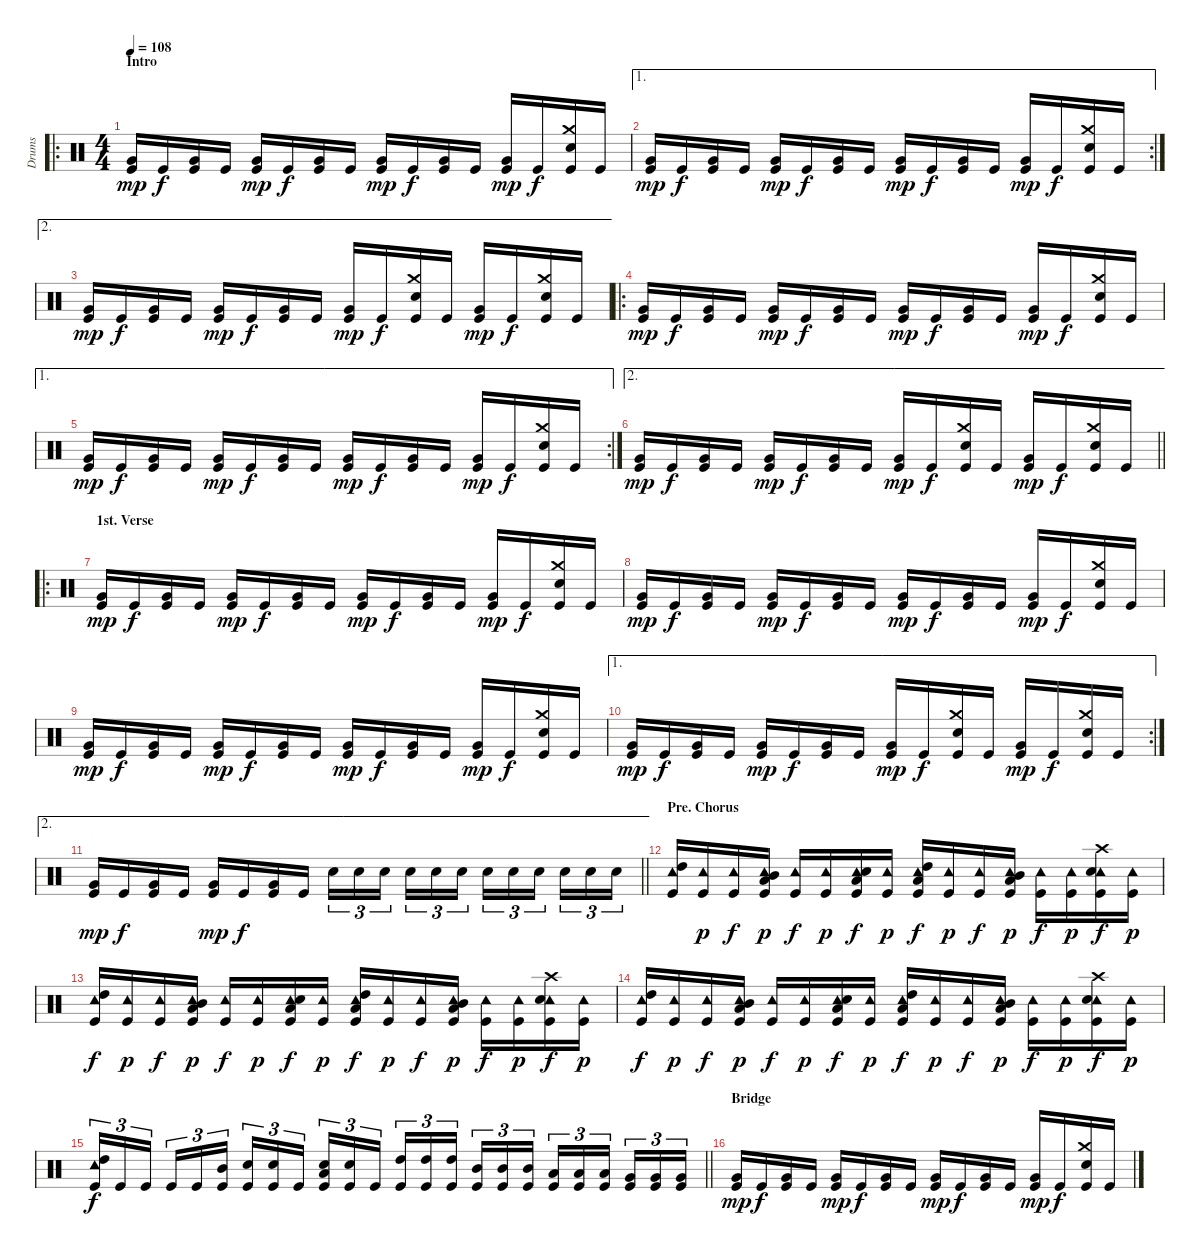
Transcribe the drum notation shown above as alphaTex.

\track ("Drums" "Drums") {instrument percussion}
\staff {score}
\articulation defaults
\ro
\ts (4 4)
\section ("" "Intro")
\tempo 108
\clef neutral
\ks c
("Very Low Tom (hit)" "Kick (hit)").16{dy mp} "Kick (hit)".16{dy f} ("Very Low Tom (hit)" "Kick (hit)").16 "Kick (hit)".16 ("Very Low Tom (hit)" "Kick (hit)").16{dy mp} "Kick (hit)".16{dy f} ("Very Low Tom (hit)" "Kick (hit)").16 "Kick (hit)".16 ("Very Low Tom (hit)" "Kick (hit)").16{dy mp} "Kick (hit)".16{dy f} ("Very Low Tom (hit)" "Kick (hit)").16 "Kick (hit)".16 ("Very Low Tom (hit)" "Kick (hit)").16{dy mp} "Kick (hit)".16{dy f} ("Crash medium (hit)" "Electric Snare (hit)" "Kick (hit)").16 "Kick (hit)".16 |
\ae 1
\rc 2
("Very Low Tom (hit)" "Kick (hit)").16{dy mp} "Kick (hit)".16{dy f} ("Very Low Tom (hit)" "Kick (hit)").16 "Kick (hit)".16 ("Very Low Tom (hit)" "Kick (hit)").16{dy mp} "Kick (hit)".16{dy f} ("Very Low Tom (hit)" "Kick (hit)").16 "Kick (hit)".16 ("Very Low Tom (hit)" "Kick (hit)").16{dy mp} "Kick (hit)".16{dy f} ("Very Low Tom (hit)" "Kick (hit)").16 "Kick (hit)".16 ("Very Low Tom (hit)" "Kick (hit)").16{dy mp} "Kick (hit)".16{dy f} ("Crash medium (hit)" "Electric Snare (hit)" "Kick (hit)").16 "Kick (hit)".16 |
\ae 2
("Very Low Tom (hit)" "Kick (hit)").16{dy mp} "Kick (hit)".16{dy f} ("Very Low Tom (hit)" "Kick (hit)").16 "Kick (hit)".16 ("Very Low Tom (hit)" "Kick (hit)").16{dy mp} "Kick (hit)".16{dy f} ("Very Low Tom (hit)" "Kick (hit)").16 "Kick (hit)".16 ("Very Low Tom (hit)" "Kick (hit)").16{dy mp} "Kick (hit)".16{dy f} ("Crash medium (hit)" "Electric Snare (hit)" "Kick (hit)").16 "Kick (hit)".16 ("Very Low Tom (hit)" "Kick (hit)").16{dy mp} "Kick (hit)".16{dy f} ("Crash medium (hit)" "Electric Snare (hit)" "Kick (hit)").16 "Kick (hit)".16 |
\ro
("Very Low Tom (hit)" "Kick (hit)").16{dy mp} "Kick (hit)".16{dy f} ("Very Low Tom (hit)" "Kick (hit)").16 "Kick (hit)".16 ("Very Low Tom (hit)" "Kick (hit)").16{dy mp} "Kick (hit)".16{dy f} ("Very Low Tom (hit)" "Kick (hit)").16 "Kick (hit)".16 ("Very Low Tom (hit)" "Kick (hit)").16{dy mp} "Kick (hit)".16{dy f} ("Very Low Tom (hit)" "Kick (hit)").16 "Kick (hit)".16 ("Very Low Tom (hit)" "Kick (hit)").16{dy mp} "Kick (hit)".16{dy f} ("Crash medium (hit)" "Electric Snare (hit)" "Kick (hit)").16 "Kick (hit)".16 |
\ae 1
\rc 2
("Very Low Tom (hit)" "Kick (hit)").16{dy mp} "Kick (hit)".16{dy f} ("Very Low Tom (hit)" "Kick (hit)").16 "Kick (hit)".16 ("Very Low Tom (hit)" "Kick (hit)").16{dy mp} "Kick (hit)".16{dy f} ("Very Low Tom (hit)" "Kick (hit)").16 "Kick (hit)".16 ("Very Low Tom (hit)" "Kick (hit)").16{dy mp} "Kick (hit)".16{dy f} ("Very Low Tom (hit)" "Kick (hit)").16 "Kick (hit)".16 ("Very Low Tom (hit)" "Kick (hit)").16{dy mp} "Kick (hit)".16{dy f} ("Crash medium (hit)" "Electric Snare (hit)" "Kick (hit)").16 "Kick (hit)".16 |
\ae 2
\barLineRight lightlight
("Very Low Tom (hit)" "Kick (hit)").16{dy mp} "Kick (hit)".16{dy f} ("Very Low Tom (hit)" "Kick (hit)").16 "Kick (hit)".16 ("Very Low Tom (hit)" "Kick (hit)").16{dy mp} "Kick (hit)".16{dy f} ("Very Low Tom (hit)" "Kick (hit)").16 "Kick (hit)".16 ("Very Low Tom (hit)" "Kick (hit)").16{dy mp} "Kick (hit)".16{dy f} ("Crash medium (hit)" "Electric Snare (hit)" "Kick (hit)").16 "Kick (hit)".16 ("Very Low Tom (hit)" "Kick (hit)").16{dy mp} "Kick (hit)".16{dy f} ("Crash medium (hit)" "Electric Snare (hit)" "Kick (hit)").16 "Kick (hit)".16 |
\ro
\section ("" "1st. Verse")
("Very Low Tom (hit)" "Kick (hit)").16{dy mp} "Kick (hit)".16{dy f} ("Very Low Tom (hit)" "Kick (hit)").16 "Kick (hit)".16 ("Very Low Tom (hit)" "Kick (hit)").16{dy mp} "Kick (hit)".16{dy f} ("Very Low Tom (hit)" "Kick (hit)").16 "Kick (hit)".16 ("Very Low Tom (hit)" "Kick (hit)").16{dy mp} "Kick (hit)".16{dy f} ("Very Low Tom (hit)" "Kick (hit)").16 "Kick (hit)".16 ("Very Low Tom (hit)" "Kick (hit)").16{dy mp} "Kick (hit)".16{dy f} ("Crash medium (hit)" "Electric Snare (hit)" "Kick (hit)").16 "Kick (hit)".16 |
("Very Low Tom (hit)" "Kick (hit)").16{dy mp} "Kick (hit)".16{dy f} ("Very Low Tom (hit)" "Kick (hit)").16 "Kick (hit)".16 ("Very Low Tom (hit)" "Kick (hit)").16{dy mp} "Kick (hit)".16{dy f} ("Very Low Tom (hit)" "Kick (hit)").16 "Kick (hit)".16 ("Very Low Tom (hit)" "Kick (hit)").16{dy mp} "Kick (hit)".16{dy f} ("Very Low Tom (hit)" "Kick (hit)").16 "Kick (hit)".16 ("Very Low Tom (hit)" "Kick (hit)").16{dy mp} "Kick (hit)".16{dy f} ("Crash medium (hit)" "Electric Snare (hit)" "Kick (hit)").16 "Kick (hit)".16 |
("Very Low Tom (hit)" "Kick (hit)").16{dy mp} "Kick (hit)".16{dy f} ("Very Low Tom (hit)" "Kick (hit)").16 "Kick (hit)".16 ("Very Low Tom (hit)" "Kick (hit)").16{dy mp} "Kick (hit)".16{dy f} ("Very Low Tom (hit)" "Kick (hit)").16 "Kick (hit)".16 ("Very Low Tom (hit)" "Kick (hit)").16{dy mp} "Kick (hit)".16{dy f} ("Very Low Tom (hit)" "Kick (hit)").16 "Kick (hit)".16 ("Very Low Tom (hit)" "Kick (hit)").16{dy mp} "Kick (hit)".16{dy f} ("Crash medium (hit)" "Electric Snare (hit)" "Kick (hit)").16 "Kick (hit)".16 |
\ae 1
\rc 2
("Very Low Tom (hit)" "Kick (hit)").16{dy mp} "Kick (hit)".16{dy f} ("Very Low Tom (hit)" "Kick (hit)").16 "Kick (hit)".16 ("Very Low Tom (hit)" "Kick (hit)").16{dy mp} "Kick (hit)".16{dy f} ("Very Low Tom (hit)" "Kick (hit)").16 "Kick (hit)".16 ("Very Low Tom (hit)" "Kick (hit)").16{dy mp} "Kick (hit)".16{dy f} ("Crash medium (hit)" "Electric Snare (hit)" "Kick (hit)").16 "Kick (hit)".16 ("Very Low Tom (hit)" "Kick (hit)").16{dy mp} "Kick (hit)".16{dy f} ("Crash medium (hit)" "Electric Snare (hit)" "Kick (hit)").16 "Kick (hit)".16 |
\ae 2
\barLineRight lightlight
("Very Low Tom (hit)" "Kick (hit)").16{dy mp} "Kick (hit)".16{dy f} ("Very Low Tom (hit)" "Kick (hit)").16 "Kick (hit)".16 ("Very Low Tom (hit)" "Kick (hit)").16{dy mp} "Kick (hit)".16{dy f} ("Very Low Tom (hit)" "Kick (hit)").16 "Kick (hit)".16 "Electric Snare (hit)".16{tu (3 2)} "Electric Snare (hit)".16{tu (3 2)} "Electric Snare (hit)".16{tu (3 2) beam splitsecondary} "Electric Snare (hit)".16{tu (3 2)} "Electric Snare (hit)".16{tu (3 2)} "Electric Snare (hit)".16{tu (3 2)} "Electric Snare (hit)".16{tu (3 2)} "Electric Snare (hit)".16{tu (3 2)} "Electric Snare (hit)".16{tu (3 2) beam splitsecondary} "Electric Snare (hit)".16{tu (3 2)} "Electric Snare (hit)".16{tu (3 2)} "Electric Snare (hit)".16{tu (3 2)} |
\section ("" "Pre. Chorus")
("Tambourine (hit)" "High Tom (hit)" "Kick (hit)").16 ("Tambourine (hit)" "Kick (hit)").16{dy p} ("Tambourine (hit)" "Kick (hit)").16{dy f} ("Tambourine (hit)" "Mid Tom (hit)" "Low Tom (hit)" "Kick (hit)").16{dy p} ("Tambourine (hit)" "Kick (hit)").16{dy f} ("Tambourine (hit)" "Kick (hit)").16{dy p} ("Tambourine (hit)" "Low Tom (hit)" "Electric Snare (hit)" "Kick (hit)").16{dy f} ("Tambourine (hit)" "Kick (hit)").16{dy p} ("Tambourine (hit)" "High Tom (hit)" "Low Tom (hit)" "Kick (hit)").16{dy f} ("Tambourine (hit)" "Kick (hit)").16{dy p} ("Tambourine (hit)" "Kick (hit)").16{dy f} ("Tambourine (hit)" "Mid Tom (hit)" "Low Tom (hit)" "Kick (hit)").16{dy p} ("Tambourine (hit)" "Kick (hit)").16{dy f} ("Tambourine (hit)" "Kick (hit)").16{dy p} ("Tambourine (hit)" "Crash high (hit)" "Electric Snare (hit)" "Kick (hit)").16{dy f} ("Tambourine (hit)" "Kick (hit)").16{dy p} |
("Tambourine (hit)" "High Tom (hit)" "Kick (hit)").16{dy f} ("Tambourine (hit)" "Kick (hit)").16{dy p} ("Tambourine (hit)" "Kick (hit)").16{dy f} ("Tambourine (hit)" "Mid Tom (hit)" "Low Tom (hit)" "Kick (hit)").16{dy p} ("Tambourine (hit)" "Kick (hit)").16{dy f} ("Tambourine (hit)" "Kick (hit)").16{dy p} ("Tambourine (hit)" "Low Tom (hit)" "Electric Snare (hit)" "Kick (hit)").16{dy f} ("Tambourine (hit)" "Kick (hit)").16{dy p} ("Tambourine (hit)" "High Tom (hit)" "Low Tom (hit)" "Kick (hit)").16{dy f} ("Tambourine (hit)" "Kick (hit)").16{dy p} ("Tambourine (hit)" "Kick (hit)").16{dy f} ("Tambourine (hit)" "Mid Tom (hit)" "Low Tom (hit)" "Kick (hit)").16{dy p} ("Tambourine (hit)" "Kick (hit)").16{dy f} ("Tambourine (hit)" "Kick (hit)").16{dy p} ("Tambourine (hit)" "Crash high (hit)" "Electric Snare (hit)" "Kick (hit)").16{dy f} ("Tambourine (hit)" "Kick (hit)").16{dy p} |
("Tambourine (hit)" "High Tom (hit)" "Kick (hit)").16{dy f} ("Tambourine (hit)" "Kick (hit)").16{dy p} ("Tambourine (hit)" "Kick (hit)").16{dy f} ("Tambourine (hit)" "Mid Tom (hit)" "Low Tom (hit)" "Kick (hit)").16{dy p} ("Tambourine (hit)" "Kick (hit)").16{dy f} ("Tambourine (hit)" "Kick (hit)").16{dy p} ("Tambourine (hit)" "Low Tom (hit)" "Electric Snare (hit)" "Kick (hit)").16{dy f} ("Tambourine (hit)" "Kick (hit)").16{dy p} ("Tambourine (hit)" "High Tom (hit)" "Low Tom (hit)" "Kick (hit)").16{dy f} ("Tambourine (hit)" "Kick (hit)").16{dy p} ("Tambourine (hit)" "Kick (hit)").16{dy f} ("Tambourine (hit)" "Mid Tom (hit)" "Low Tom (hit)" "Kick (hit)").16{dy p} ("Tambourine (hit)" "Kick (hit)").16{dy f} ("Tambourine (hit)" "Kick (hit)").16{dy p} ("Tambourine (hit)" "Crash high (hit)" "Electric Snare (hit)" "Kick (hit)").16{dy f} ("Tambourine (hit)" "Kick (hit)").16{dy p} |
\barLineRight lightlight
("Tambourine (hit)" "High Tom (hit)" "Kick (hit)").16{tu (3 2) dy f} "Kick (hit)".16{tu (3 2)} "Kick (hit)".16{tu (3 2) beam splitsecondary} "Kick (hit)".16{tu (3 2)} "Kick (hit)".16{tu (3 2)} ("Mid Tom (hit)" "Kick (hit)").16{tu (3 2)} ("Electric Snare (hit)" "Kick (hit)").16{tu (3 2)} ("Electric Snare (hit)" "Kick (hit)").16{tu (3 2)} "Kick (hit)".16{tu (3 2) beam splitsecondary} ("Low Tom (hit)" "Electric Snare (hit)" "Kick (hit)").16{tu (3 2)} ("Electric Snare (hit)" "Kick (hit)").16{tu (3 2)} "Kick (hit)".16{tu (3 2)} ("High Tom (hit)" "Kick (hit)").16{tu (3 2)} ("High Tom (hit)" "Kick (hit)").16{tu (3 2)} ("High Tom (hit)" "Kick (hit)").16{tu (3 2) beam splitsecondary} ("Mid Tom (hit)" "Kick (hit)").16{tu (3 2)} ("Mid Tom (hit)" "Kick (hit)").16{tu (3 2)} ("Mid Tom (hit)" "Kick (hit)").16{tu (3 2)} ("Low Tom (hit)" "Kick (hit)").16{tu (3 2)} ("Low Tom (hit)" "Kick (hit)").16{tu (3 2)} ("Low Tom (hit)" "Kick (hit)").16{tu (3 2) beam splitsecondary} ("Very Low Tom (hit)" "Kick (hit)").16{tu (3 2)} ("Very Low Tom (hit)" "Kick (hit)").16{tu (3 2)} ("Very Low Tom (hit)" "Kick (hit)").16{tu (3 2)} |
\section ("" "Bridge")
("Very Low Tom (hit)" "Kick (hit)").16{dy mp} "Kick (hit)".16{dy f} ("Very Low Tom (hit)" "Kick (hit)").16 "Kick (hit)".16 ("Very Low Tom (hit)" "Kick (hit)").16{dy mp} "Kick (hit)".16{dy f} ("Very Low Tom (hit)" "Kick (hit)").16 "Kick (hit)".16 ("Very Low Tom (hit)" "Kick (hit)").16{dy mp} "Kick (hit)".16{dy f} ("Very Low Tom (hit)" "Kick (hit)").16 "Kick (hit)".16 ("Very Low Tom (hit)" "Kick (hit)").16{dy mp} "Kick (hit)".16{dy f} ("Crash medium (hit)" "Electric Snare (hit)" "Kick (hit)").16 "Kick (hit)".16
